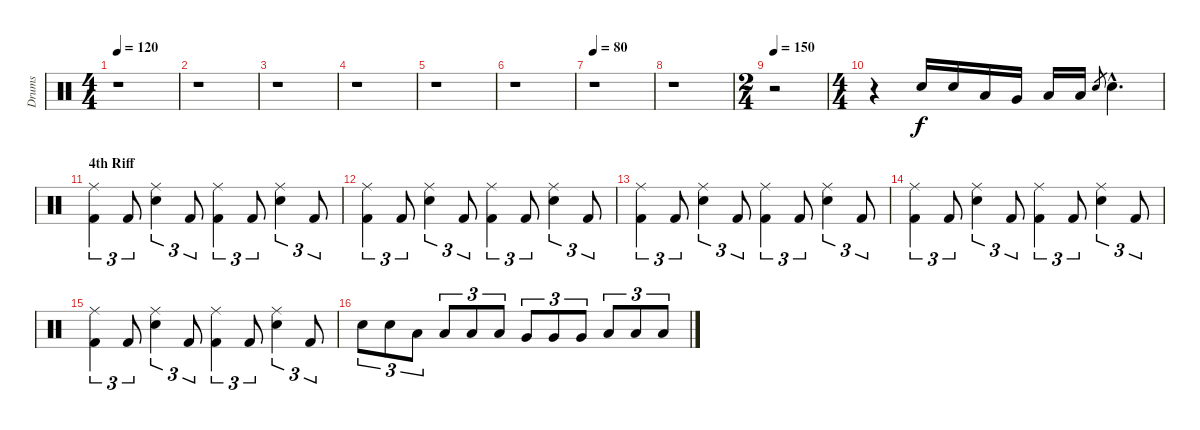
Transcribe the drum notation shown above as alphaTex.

\track ("Drums" "Drums") {instrument percussion}
\staff {score}
\articulation defaults
\ts (4 4)
\tempo 120
\clef neutral
\ks c
r.1{dy f} |
r.1 |
r.1 |
r.1 |
r.1 |
r.1 |
\tempo 80
r.1 |
r.1 |
\ts (2 4)
\tempo 150
r.2 |
\ts (4 4)
r.4 "Snare (hit) 2".16 "Snare (hit) 2".16 "Low Tom (hit)".16 "Very Low Tom (hit)".16 "Low Tom (hit)".16 "Low Tom (hit)".16 "Snare (hit) 2".8{gr} "Snare (hit) 2"{hac}.4{d} |
\section ("" "4th Riff")
("Ride (middle)" "Kick (hit) 2").4{tu (3 2)} "Kick (hit) 2".8{tu (3 2)} ("Ride (middle)" "Snare (hit) 2").4{tu (3 2)} "Kick (hit) 2".8{tu (3 2)} ("Ride (middle)" "Kick (hit) 2").4{tu (3 2)} "Kick (hit) 2".8{tu (3 2)} ("Ride (middle)" "Snare (hit) 2").4{tu (3 2)} "Kick (hit) 2".8{tu (3 2)} |
("Ride (middle)" "Kick (hit) 2").4{tu (3 2)} "Kick (hit) 2".8{tu (3 2)} ("Ride (middle)" "Snare (hit) 2").4{tu (3 2)} "Kick (hit) 2".8{tu (3 2)} ("Ride (middle)" "Kick (hit) 2").4{tu (3 2)} "Kick (hit) 2".8{tu (3 2)} ("Ride (middle)" "Snare (hit) 2").4{tu (3 2)} "Kick (hit) 2".8{tu (3 2)} |
("Ride (middle)" "Kick (hit) 2").4{tu (3 2)} "Kick (hit) 2".8{tu (3 2)} ("Ride (middle)" "Snare (hit) 2").4{tu (3 2)} "Kick (hit) 2".8{tu (3 2)} ("Ride (middle)" "Kick (hit) 2").4{tu (3 2)} "Kick (hit) 2".8{tu (3 2)} ("Ride (middle)" "Snare (hit) 2").4{tu (3 2)} "Kick (hit) 2".8{tu (3 2)} |
("Ride (middle)" "Kick (hit) 2").4{tu (3 2)} "Kick (hit) 2".8{tu (3 2)} ("Ride (middle)" "Snare (hit) 2").4{tu (3 2)} "Kick (hit) 2".8{tu (3 2)} ("Ride (middle)" "Kick (hit) 2").4{tu (3 2)} "Kick (hit) 2".8{tu (3 2)} ("Ride (middle)" "Snare (hit) 2").4{tu (3 2)} "Kick (hit) 2".8{tu (3 2)} |
("Ride (middle)" "Kick (hit) 2").4{tu (3 2)} "Kick (hit) 2".8{tu (3 2)} ("Ride (middle)" "Snare (hit) 2").4{tu (3 2)} "Kick (hit) 2".8{tu (3 2)} ("Ride (middle)" "Kick (hit) 2").4{tu (3 2)} "Kick (hit) 2".8{tu (3 2)} ("Ride (middle)" "Snare (hit) 2").4{tu (3 2)} "Kick (hit) 2".8{tu (3 2)} |
"Snare (hit) 2".8{tu (3 2)} "Snare (hit) 2".8{tu (3 2)} "Low Tom (hit)".8{tu (3 2)} "Low Tom (hit)".8{tu (3 2)} "Low Tom (hit)".8{tu (3 2)} "Low Tom (hit)".8{tu (3 2)} "Very Low Tom (hit)".8{tu (3 2)} "Very Low Tom (hit)".8{tu (3 2)} "Very Low Tom (hit)".8{tu (3 2)} "Low Tom (hit)".8{tu (3 2)} "Low Tom (hit)".8{tu (3 2)} "Low Tom (hit)".8{tu (3 2)}
